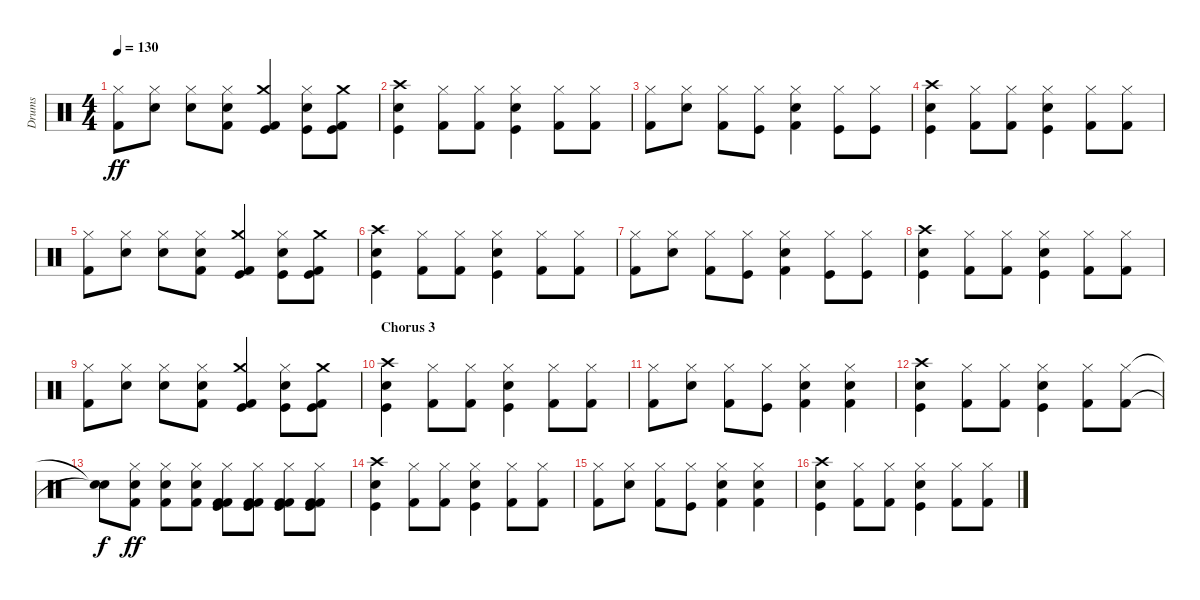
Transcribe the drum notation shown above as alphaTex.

\track ("Drums" "Drums") {instrument percussion}
\staff {score}
\articulation defaults
\ts (4 4)
\tempo 130
\clef neutral
\ks c
("Hi-Hat (closed)" "Kick (hit) 2").8{dy ff} ("Hi-Hat (closed)" "Snare (hit) 2").8 ("Hi-Hat (closed)" "Snare (hit) 2").8 ("Hi-Hat (closed)" "Kick (hit) 2" "Snare (hit) 2").8 ("Crash medium (hit)" "Kick (hit)" "Kick (hit) 2").4 ("Hi-Hat (closed)" "Kick (hit)" "Snare (hit) 2").8 ("Crash medium (hit)" "Kick (hit)" "Kick (hit) 2").8 |
("Crash high (hit)" "Snare (hit) 2" "Kick (hit)").4 ("Hi-Hat (closed)" "Kick (hit) 2").8 ("Hi-Hat (closed)" "Kick (hit) 2").8 ("Hi-Hat (closed)" "Snare (hit) 2" "Kick (hit)").4 ("Hi-Hat (closed)" "Kick (hit) 2").8 ("Hi-Hat (closed)" "Kick (hit) 2").8 |
("Hi-Hat (closed)" "Kick (hit) 2").8 ("Hi-Hat (closed)" "Snare (hit) 2").8 ("Hi-Hat (closed)" "Kick (hit) 2").8 ("Hi-Hat (closed)" "Kick (hit)").8 ("Hi-Hat (closed)" "Kick (hit) 2" "Snare (hit) 2").4 ("Hi-Hat (closed)" "Kick (hit)").8 ("Hi-Hat (closed)" "Kick (hit)").8 |
("Crash high (hit)" "Snare (hit) 2" "Kick (hit)").4 ("Hi-Hat (closed)" "Kick (hit) 2").8 ("Hi-Hat (closed)" "Kick (hit) 2").8 ("Hi-Hat (closed)" "Snare (hit) 2" "Kick (hit)").4 ("Hi-Hat (closed)" "Kick (hit) 2").8 ("Hi-Hat (closed)" "Kick (hit) 2").8 |
("Hi-Hat (closed)" "Kick (hit) 2").8 ("Hi-Hat (closed)" "Snare (hit) 2").8 ("Hi-Hat (closed)" "Snare (hit) 2").8 ("Hi-Hat (closed)" "Kick (hit) 2" "Snare (hit) 2").8 ("Crash medium (hit)" "Kick (hit)" "Kick (hit) 2").4 ("Hi-Hat (closed)" "Kick (hit)" "Snare (hit) 2").8 ("Crash medium (hit)" "Kick (hit)" "Kick (hit) 2").8 |
("Crash high (hit)" "Snare (hit) 2" "Kick (hit)").4 ("Hi-Hat (closed)" "Kick (hit) 2").8 ("Hi-Hat (closed)" "Kick (hit) 2").8 ("Hi-Hat (closed)" "Snare (hit) 2" "Kick (hit)").4 ("Hi-Hat (closed)" "Kick (hit) 2").8 ("Hi-Hat (closed)" "Kick (hit) 2").8 |
("Hi-Hat (closed)" "Kick (hit) 2").8 ("Hi-Hat (closed)" "Snare (hit) 2").8 ("Hi-Hat (closed)" "Kick (hit) 2").8 ("Hi-Hat (closed)" "Kick (hit)").8 ("Hi-Hat (closed)" "Kick (hit) 2" "Snare (hit) 2").4 ("Hi-Hat (closed)" "Kick (hit)").8 ("Hi-Hat (closed)" "Kick (hit)").8 |
("Crash high (hit)" "Snare (hit) 2" "Kick (hit)").4 ("Hi-Hat (closed)" "Kick (hit) 2").8 ("Hi-Hat (closed)" "Kick (hit) 2").8 ("Hi-Hat (closed)" "Snare (hit) 2" "Kick (hit)").4 ("Hi-Hat (closed)" "Kick (hit) 2").8 ("Hi-Hat (closed)" "Kick (hit) 2").8 |
("Hi-Hat (closed)" "Kick (hit) 2").8 ("Hi-Hat (closed)" "Snare (hit) 2").8 ("Hi-Hat (closed)" "Snare (hit) 2").8 ("Hi-Hat (closed)" "Kick (hit) 2" "Snare (hit) 2").8 ("Crash medium (hit)" "Kick (hit)" "Kick (hit) 2").4 ("Hi-Hat (closed)" "Kick (hit)" "Snare (hit) 2").8 ("Crash medium (hit)" "Kick (hit)" "Kick (hit) 2").8 |
\section ("" "Chorus 3")
("Crash high (hit)" "Snare (hit) 2" "Kick (hit)").4 ("Hi-Hat (closed)" "Kick (hit) 2").8 ("Hi-Hat (closed)" "Kick (hit) 2").8 ("Hi-Hat (closed)" "Snare (hit) 2" "Kick (hit)").4 ("Hi-Hat (closed)" "Kick (hit) 2").8 ("Hi-Hat (closed)" "Kick (hit) 2").8 |
("Hi-Hat (closed)" "Kick (hit) 2").8 ("Hi-Hat (closed)" "Snare (hit) 2").8 ("Hi-Hat (closed)" "Kick (hit) 2").8 ("Hi-Hat (closed)" "Kick (hit)").8 ("Hi-Hat (closed)" "Kick (hit) 2" "Snare (hit) 2").4 ("Hi-Hat (closed)" "Kick (hit) 2" "Snare (hit) 2").4 |
("Crash high (hit)" "Snare (hit) 2" "Kick (hit)").4 ("Hi-Hat (closed)" "Kick (hit) 2").8 ("Hi-Hat (closed)" "Kick (hit) 2").8 ("Hi-Hat (closed)" "Snare (hit) 2" "Kick (hit)").4 ("Hi-Hat (closed)" "Kick (hit) 2").8 ("Hi-Hat (closed)" "Kick (hit) 2").8 |
("Snare (hit)"{t} "Snare (hit)"{t}).8{dy f} ("Hi-Hat (closed)" "Snare (hit) 2" "Kick (hit) 2").8{dy ff} ("Hi-Hat (closed)" "Snare (hit) 2" "Kick (hit) 2").8 ("Hi-Hat (closed)" "Snare (hit) 2" "Kick (hit) 2").8 ("Hi-Hat (closed)" "Kick (hit) 2" "Kick (hit) 2" "Kick (hit)").8 ("Hi-Hat (closed)" "Kick (hit) 2" "Kick (hit) 2" "Kick (hit)").8 ("Hi-Hat (closed)" "Kick (hit) 2" "Kick (hit) 2" "Kick (hit)").8 ("Hi-Hat (closed)" "Kick (hit) 2" "Kick (hit) 2" "Kick (hit)").8 |
("Crash high (hit)" "Snare (hit) 2" "Kick (hit)").4 ("Hi-Hat (closed)" "Kick (hit) 2").8 ("Hi-Hat (closed)" "Kick (hit) 2").8 ("Hi-Hat (closed)" "Snare (hit) 2" "Kick (hit)").4 ("Hi-Hat (closed)" "Kick (hit) 2").8 ("Hi-Hat (closed)" "Kick (hit) 2").8 |
("Hi-Hat (closed)" "Kick (hit) 2").8 ("Hi-Hat (closed)" "Snare (hit) 2").8 ("Hi-Hat (closed)" "Kick (hit) 2").8 ("Hi-Hat (closed)" "Kick (hit)").8 ("Hi-Hat (closed)" "Kick (hit) 2" "Snare (hit) 2").4 ("Hi-Hat (closed)" "Kick (hit) 2" "Snare (hit) 2").4 |
("Crash high (hit)" "Snare (hit) 2" "Kick (hit)").4 ("Hi-Hat (closed)" "Kick (hit) 2").8 ("Hi-Hat (closed)" "Kick (hit) 2").8 ("Hi-Hat (closed)" "Snare (hit) 2" "Kick (hit)").4 ("Hi-Hat (closed)" "Kick (hit) 2").8 ("Hi-Hat (closed)" "Kick (hit) 2").8
